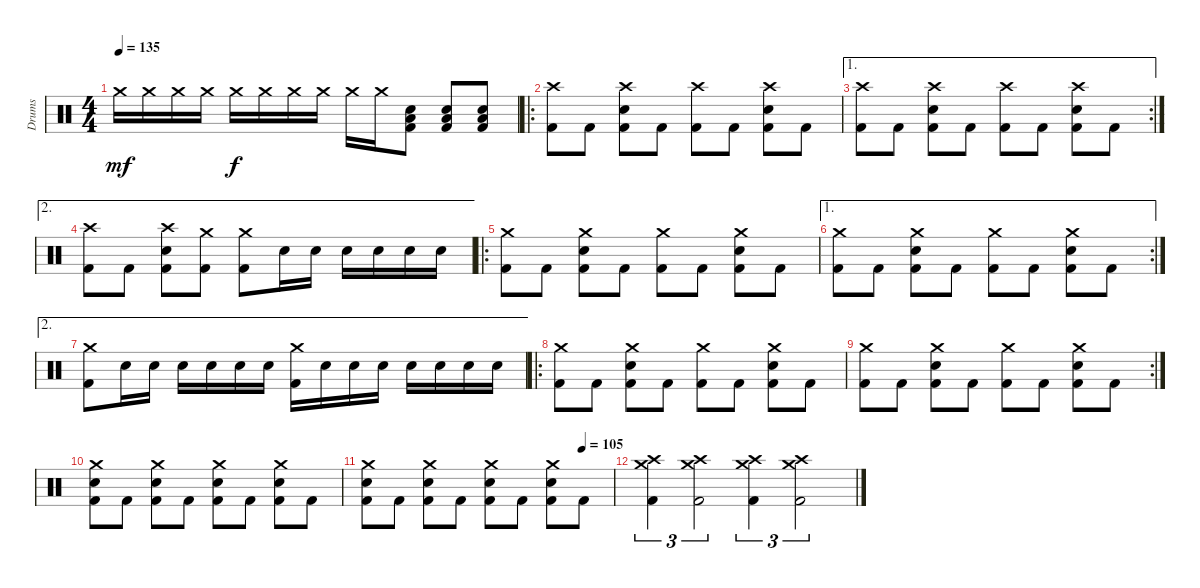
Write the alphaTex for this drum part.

\track ("Drums" "Drums") {instrument percussion}
\staff {score}
\articulation defaults
\ts (4 4)
\tempo 135
\clef neutral
\ks c "Crash medium (hit)".16{dy mf} "Crash medium (hit)".16 "Crash medium (hit)".16 "Crash medium (hit)".16 "Crash medium (hit)".16{dy f} "Crash medium (hit)".16 "Crash medium (hit)".16 "Crash medium (hit)".16 "Crash medium (hit)".16 "Crash medium (hit)".16
("Low Floor Tom (hit)" "Electric Snare (hit)" "Kick (hit) 2").8 ("Low Floor Tom (hit)" "Electric Snare (hit)" "Kick (hit) 2").8 ("Low Floor Tom (hit)" "Electric Snare (hit)" "Kick (hit) 2").8 |
\ro
("Crash high (hit)" "Kick (hit) 2").8 "Kick (hit) 2".8 ("Crash high (hit)" "Electric Snare (hit)" "Kick (hit) 2").8 "Kick (hit) 2".8 ("Crash high (hit)" "Kick (hit) 2").8 "Kick (hit) 2".8 ("Crash high (hit)" "Electric Snare (hit)" "Kick (hit) 2").8 "Kick (hit) 2".8 |
\ae 1
\rc 2
("Crash high (hit)" "Kick (hit) 2").8 "Kick (hit) 2".8 ("Crash high (hit)" "Electric Snare (hit)" "Kick (hit) 2").8 "Kick (hit) 2".8 ("Crash high (hit)" "Kick (hit) 2").8 "Kick (hit) 2".8 ("Crash high (hit)" "Electric Snare (hit)" "Kick (hit) 2").8 "Kick (hit) 2".8 |
\ae 2
("Crash high (hit)" "Kick (hit) 2").8 "Kick (hit) 2".8 ("Crash high (hit)" "Electric Snare (hit)" "Kick (hit) 2").8 ("Crash medium (hit)" "Kick (hit) 2").8 ("Crash medium (hit)" "Kick (hit) 2").8 "Electric Snare (hit)".16 "Electric Snare (hit)".16 "Electric Snare (hit)".16 "Electric Snare (hit)".16 "Electric Snare (hit)".16 "Electric Snare (hit)".16 |
\ro
("Crash medium (hit)" "Kick (hit) 2").8 "Kick (hit) 2".8 ("Crash medium (hit)" "Electric Snare (hit)" "Kick (hit) 2").8 "Kick (hit) 2".8 ("Crash medium (hit)" "Kick (hit) 2").8 "Kick (hit) 2".8 ("Crash medium (hit)" "Electric Snare (hit)" "Kick (hit) 2").8 "Kick (hit) 2".8 |
\ae 1
\rc 2
("Crash medium (hit)" "Kick (hit) 2").8 "Kick (hit) 2".8 ("Crash medium (hit)" "Electric Snare (hit)" "Kick (hit) 2").8 "Kick (hit) 2".8 ("Crash medium (hit)" "Kick (hit) 2").8 "Kick (hit) 2".8 ("Crash medium (hit)" "Electric Snare (hit)" "Kick (hit) 2").8 "Kick (hit) 2".8 |
\ae 2
("Crash medium (hit)" "Kick (hit) 2").8 "Electric Snare (hit)".16 "Electric Snare (hit)".16 "Electric Snare (hit)".16 "Electric Snare (hit)".16 "Electric Snare (hit)".16 "Electric Snare (hit)".16 ("Crash medium (hit)" "Kick (hit) 2").16 "Electric Snare (hit)".16 "Electric Snare (hit)".16 "Electric Snare (hit)".16 "Electric Snare (hit)".16 "Electric Snare (hit)".16 "Electric Snare (hit)".16 "Electric Snare (hit)".16 |
\ro
("Crash medium (hit)" "Kick (hit) 2").8 "Kick (hit) 2".8 ("Crash medium (hit)" "Electric Snare (hit)" "Kick (hit) 2").8 "Kick (hit) 2".8 ("Crash medium (hit)" "Kick (hit) 2").8 "Kick (hit) 2".8 ("Crash medium (hit)" "Electric Snare (hit)" "Kick (hit) 2").8 "Kick (hit) 2".8 |
\rc 2
("Crash medium (hit)" "Kick (hit) 2").8 "Kick (hit) 2".8 ("Crash medium (hit)" "Electric Snare (hit)" "Kick (hit) 2").8 "Kick (hit) 2".8 ("Crash medium (hit)" "Kick (hit) 2").8 "Kick (hit) 2".8 ("Crash medium (hit)" "Electric Snare (hit)" "Kick (hit) 2").8 "Kick (hit) 2".8 |
("Crash medium (hit)" "Electric Snare (hit)" "Kick (hit) 2").8 "Kick (hit) 2".8 ("Crash medium (hit)" "Electric Snare (hit)" "Kick (hit) 2").8 "Kick (hit) 2".8 ("Crash medium (hit)" "Electric Snare (hit)" "Kick (hit) 2").8 "Kick (hit) 2".8 ("Crash medium (hit)" "Electric Snare (hit)" "Kick (hit) 2").8 "Kick (hit) 2".8 |
\tempo (105 0.875)
("Crash medium (hit)" "Electric Snare (hit)" "Kick (hit) 2").8 "Kick (hit) 2".8 ("Crash medium (hit)" "Electric Snare (hit)" "Kick (hit) 2").8 "Kick (hit) 2".8 ("Crash medium (hit)" "Electric Snare (hit)" "Kick (hit) 2").8 "Kick (hit) 2".8 ("Crash medium (hit)" "Electric Snare (hit)" "Kick (hit) 2").8 "Kick (hit) 2".8 |
("Crash medium (hit)" "Crash high (hit)" "Kick (hit) 2").4{tu (3 2)} ("Crash medium (hit)" "Crash high (hit)" "Kick (hit) 2").2{tu (3 2)} ("Crash medium (hit)" "Crash high (hit)" "Kick (hit) 2").4{tu (3 2)} ("Crash medium (hit)" "Crash high (hit)" "Kick (hit) 2").2{tu (3 2)}
